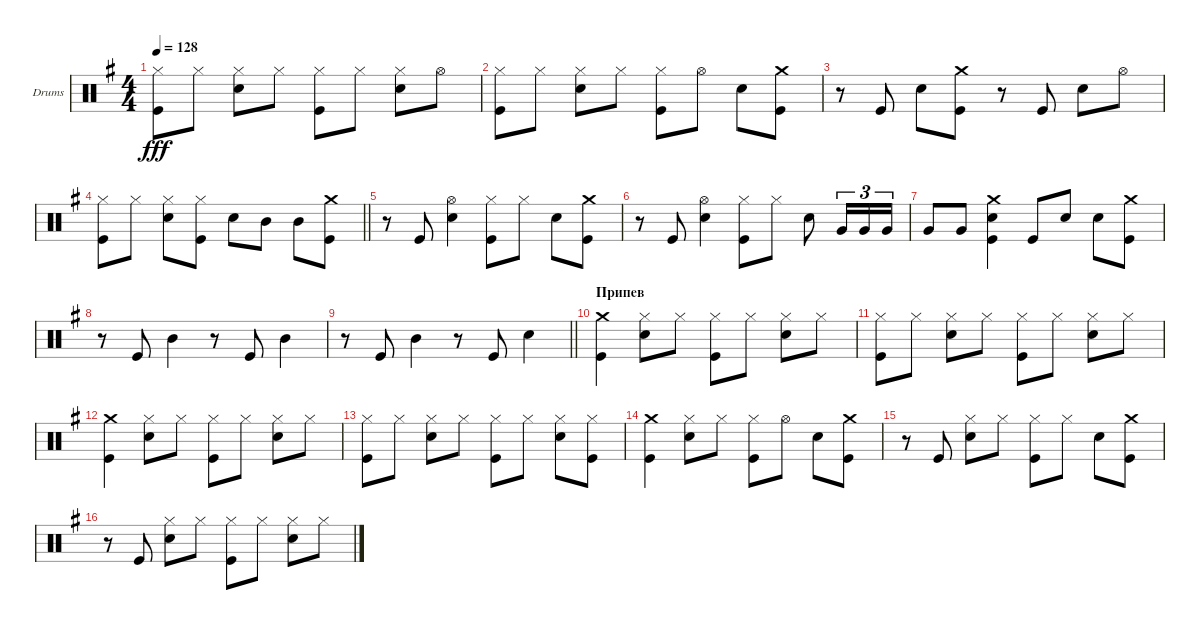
\bracketExtendMode groupsimilarinstruments
\firstSystemTrackNameOrientation horizontal
\otherSystemsTrackNameOrientation horizontal
\track ("Барабаны" "Drums") {instrument percussion}
\staff {score}
\articulation defaults
\ts (4 4)
\tempo 128
\clef neutral
\ks eminor
("Hi-Hat (closed)" "Kick (hit)").8{dy fff} "Hi-Hat (closed)".8 ("Hi-Hat (closed)" "Snare (hit) 2").8 "Hi-Hat (closed)".8 ("Hi-Hat (closed)" "Kick (hit)").8 "Hi-Hat (closed)".8 ("Hi-Hat (closed)" "Snare (hit) 2").8 "Hi-Hat (open)".8 |
("Hi-Hat (closed)" "Kick (hit)").8 "Hi-Hat (closed)".8 ("Hi-Hat (closed)" "Snare (hit) 2").8 "Hi-Hat (closed)".8 ("Hi-Hat (closed)" "Kick (hit)").8 "Hi-Hat (open)".8 "Snare (hit) 2".8 ("Kick (hit)" "Crash medium (hit)").8 |
r.8 "Kick (hit)".8 "Snare (hit) 2".8 ("Kick (hit)" "Crash medium (hit)").8 r.8 "Kick (hit)".8 "Snare (hit) 2".8 "Hi-Hat (open)".8 |
\barLineRight lightlight
("Hi-Hat (closed)" "Kick (hit)").8 "Hi-Hat (closed)".8 ("Snare (hit) 2" "Hi-Hat (closed)").8 ("Hi-Hat (closed)" "Kick (hit)").8 "Snare (hit) 2".8 "Mid Tom (hit)".8 "Mid Tom (hit)".8 ("Kick (hit)" "Crash medium (hit)").8 |
r.8 "Kick (hit)".8 ("Snare (hit) 2" "Hi-Hat (open)").4 ("Kick (hit)" "Hi-Hat (closed)").8 "Hi-Hat (closed)".8 "Snare (hit) 2".8 ("Kick (hit)" "Crash medium (hit)").8 |
r.8 "Kick (hit)".8 ("Snare (hit) 2" "Hi-Hat (open)").4 ("Kick (hit)" "Hi-Hat (closed)").8 "Hi-Hat (closed)".8 "Snare (hit) 2".8 "Very Low Tom (hit)".16{tu (3 2)} "Very Low Tom (hit)".16{tu (3 2)} "Very Low Tom (hit)".16{tu (3 2)} |
"Very Low Tom (hit)".8 "Very Low Tom (hit)".8 ("Kick (hit)" "Crash medium (hit)" "Snare (hit) 2").4 "Kick (hit)".8 "Snare (hit) 2".8 "Snare (hit) 2".8 ("Kick (hit)" "Crash medium (hit)").8 |
r.8 "Kick (hit)".8 "Mid Tom (hit)".4 r.8 "Kick (hit)".8 "Mid Tom (hit)".4 |
\barLineRight lightlight
r.8 "Kick (hit)".8 "Mid Tom (hit)".4 r.8 "Kick (hit)".8 "Snare (hit) 2".4 |
\section ("" "Припев")
("Crash medium (hit)" "Kick (hit)").4 ("Hi-Hat (closed)" "Snare (hit) 2").8 "Hi-Hat (closed)".8 ("Hi-Hat (closed)" "Kick (hit)").8 "Hi-Hat (closed)".8 ("Hi-Hat (closed)" "Snare (hit) 2").8 "Hi-Hat (closed)".8 |
("Hi-Hat (closed)" "Kick (hit)").8 "Hi-Hat (closed)".8 ("Hi-Hat (closed)" "Snare (hit) 2").8 "Hi-Hat (closed)".8 ("Hi-Hat (closed)" "Kick (hit)").8 "Hi-Hat (closed)".8 ("Hi-Hat (closed)" "Snare (hit) 2").8 "Hi-Hat (closed)".8 |
("Crash medium (hit)" "Kick (hit)").4 ("Hi-Hat (closed)" "Snare (hit) 2").8 "Hi-Hat (closed)".8 ("Hi-Hat (closed)" "Kick (hit)").8 "Hi-Hat (closed)".8 ("Hi-Hat (closed)" "Snare (hit) 2").8 "Hi-Hat (closed)".8 |
("Hi-Hat (closed)" "Kick (hit)").8 "Hi-Hat (closed)".8 ("Hi-Hat (closed)" "Snare (hit) 2").8 "Hi-Hat (closed)".8 ("Hi-Hat (closed)" "Kick (hit)").8 "Hi-Hat (closed)".8 ("Hi-Hat (closed)" "Snare (hit) 2").8 ("Hi-Hat (closed)" "Kick (hit)").8 |
("Crash medium (hit)" "Kick (hit)").4 ("Hi-Hat (closed)" "Snare (hit) 2").8 "Hi-Hat (closed)".8 ("Hi-Hat (closed)" "Kick (hit)").8 "Hi-Hat (open)".8 "Snare (hit) 2".8 ("Kick (hit)" "Crash medium (hit)").8 |
r.8 "Kick (hit)".8 ("Hi-Hat (closed)" "Snare (hit) 2").8 "Hi-Hat (closed)".8 ("Hi-Hat (closed)" "Kick (hit)").8 "Hi-Hat (closed)".8 "Snare (hit) 2".8 ("Kick (hit)" "Crash medium (hit)").8 |
r.8 "Kick (hit)".8 ("Hi-Hat (closed)" "Snare (hit) 2").8 "Hi-Hat (closed)".8 ("Hi-Hat (closed)" "Kick (hit)").8 "Hi-Hat (closed)".8 ("Hi-Hat (closed)" "Snare (hit) 2").8 "Hi-Hat (closed)".8
